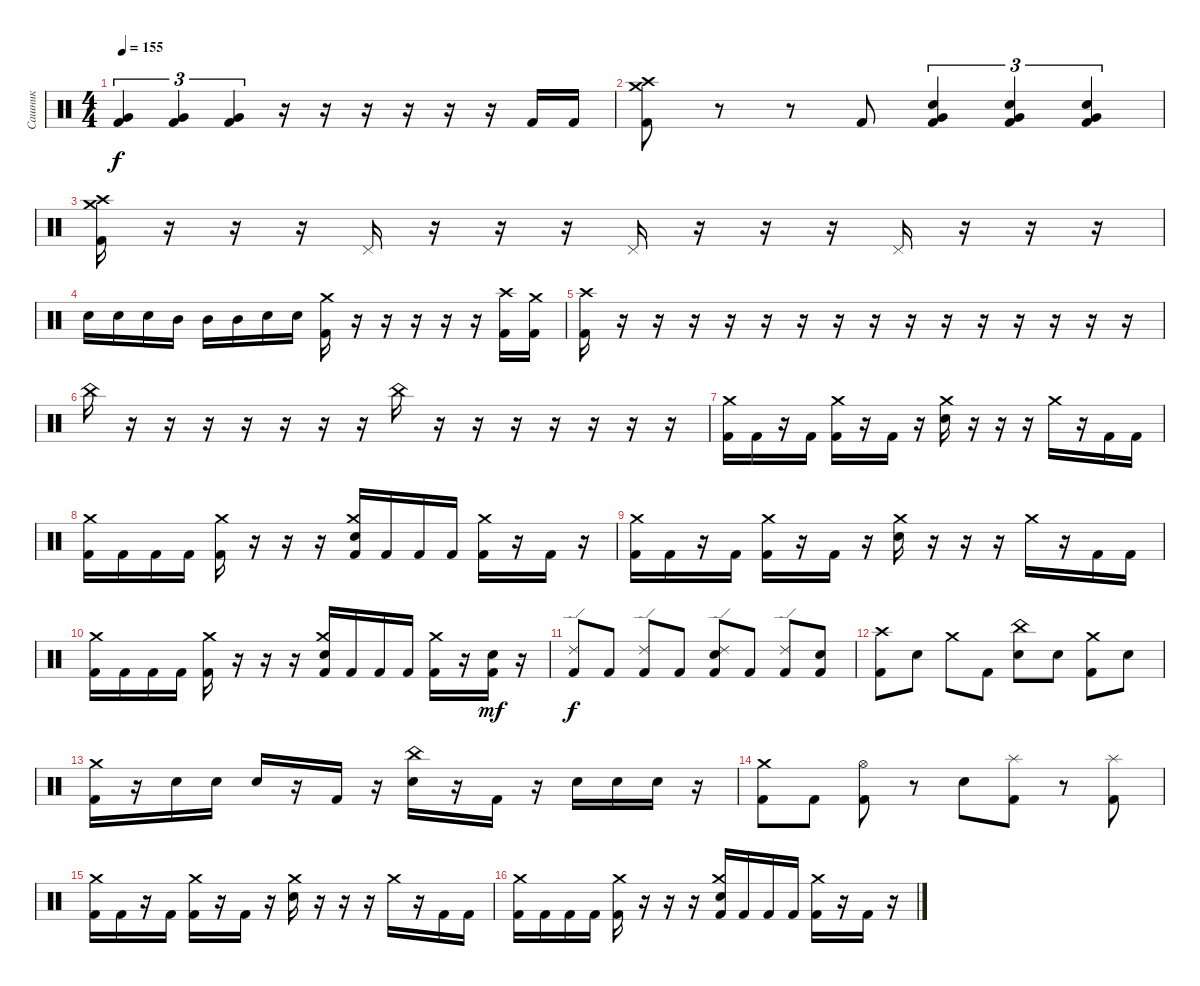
\track ("Сашник" "Сашник") {instrument percussion}
\staff {score}
\articulation defaults
\ts (4 4)
\tempo 155
\clef neutral
\ks c
("Very Low Tom (hit)" "Kick (hit) 2").4{tu (3 2) dy f} ("Very Low Tom (hit)" "Kick (hit) 2").4{tu (3 2)} ("Very Low Tom (hit)" "Kick (hit) 2").4{tu (3 2)} r.16 r.16 r.16 r.16 r.16 r.16 "Kick (hit) 2".16 "Kick (hit) 2".16 |
("Crash high (hit)" "Crash medium (hit)" "Kick (hit) 2").8 r.8 r.8 "Kick (hit) 2".8 ("Very Low Tom (hit)" "Electric Snare (hit)" "Kick (hit) 2").4{tu (3 2)} ("Very Low Tom (hit)" "Electric Snare (hit)" "Kick (hit) 2").4{tu (3 2)} ("Very Low Tom (hit)" "Electric Snare (hit)" "Kick (hit) 2").4{tu (3 2)} |
("Crash medium (hit)" "Crash high (hit)" "Kick (hit) 2").16 r.16 r.16 r.16 "Pedal Hi-Hat (hit)".16 r.16 r.16 r.16 "Pedal Hi-Hat (hit)".16 r.16 r.16 r.16 "Pedal Hi-Hat (hit)".16 r.16 r.16 r.16 |
"Electric Snare (hit)".16 "Electric Snare (hit)".16 "Electric Snare (hit)".16 "Mid Tom (hit)".16 "Mid Tom (hit)".16 "Mid Tom (hit)".16 "Electric Snare (hit)".16 "Electric Snare (hit)".16 ("Crash medium (hit)" "Kick (hit) 2").16 r.16 r.16 r.16 r.16 r.16 ("Crash high (hit)" "Kick (hit) 2").16 ("Crash medium (hit)" "Kick (hit) 2").16 |
("Crash high (hit)" "Kick (hit) 2").16 r.16 r.16 r.16 r.16 r.16 r.16 r.16 r.16 r.16 r.16 r.16 r.16 r.16 r.16 r.16 |
"China (hit)".16 r.16 r.16 r.16 r.16 r.16 r.16 r.16 "China (hit)".16 r.16 r.16 r.16 r.16 r.16 r.16 r.16 |
("Crash medium (hit)" "Kick (hit) 2").16 "Kick (hit) 2".16 r.16 "Kick (hit) 2".16 ("Crash medium (hit)" "Kick (hit) 2").16 r.16 "Kick (hit) 2".16 r.16 ("Crash medium (hit)" "Electric Snare (hit)").16 r.16 r.16 r.16 "Crash medium (hit)".16 r.16 "Kick (hit) 2".16 "Kick (hit) 2".16 |
("Crash medium (hit)" "Kick (hit) 2").16 "Kick (hit) 2".16 "Kick (hit) 2".16 "Kick (hit) 2".16 ("Crash medium (hit)" "Kick (hit) 2").16 r.16 r.16 r.16 ("Crash medium (hit)" "Electric Snare (hit)" "Kick (hit) 2").16 "Kick (hit) 2".16 "Kick (hit) 2".16 "Kick (hit) 2".16 ("Crash medium (hit)" "Kick (hit) 2").16 r.16 "Kick (hit) 2".16 r.16 |
("Crash medium (hit)" "Kick (hit) 2").16 "Kick (hit) 2".16 r.16 "Kick (hit) 2".16 ("Crash medium (hit)" "Kick (hit) 2").16 r.16 "Kick (hit) 2".16 r.16 ("Crash medium (hit)" "Electric Snare (hit)").16 r.16 r.16 r.16 "Crash medium (hit)".16 r.16 "Kick (hit) 2".16 "Kick (hit) 2".16 |
("Crash medium (hit)" "Kick (hit) 2").16 "Kick (hit) 2".16 "Kick (hit) 2".16 "Kick (hit) 2".16 ("Crash medium (hit)" "Kick (hit) 2").16 r.16 r.16 r.16 ("Crash medium (hit)" "Electric Snare (hit)" "Kick (hit) 2").16 "Kick (hit) 2".16 "Kick (hit) 2".16 "Kick (hit) 2".16 ("Crash medium (hit)" "Kick (hit) 2").16 r.16 ("Electric Snare (hit)" "Kick (hit) 2").16{dy mf} r.16 |
("Ride (edge) 2" "Kick (hit) 2").8{dy f} "Kick (hit) 2".8 ("Ride (edge) 2" "Kick (hit) 2").8 "Kick (hit) 2".8 ("Ride (edge) 2" "Electric Snare (hit)" "Kick (hit) 2").8 "Kick (hit) 2".8 ("Ride (edge) 2" "Kick (hit) 2").8 ("Electric Snare (hit)" "Kick (hit) 2").8 |
("Crash high (hit)" "Kick (hit) 2").8 "Electric Snare (hit)".8 "Crash medium (hit)".8 "Kick (hit) 2".8 ("China (hit)" "Electric Snare (hit)").8 "Electric Snare (hit)".8 ("Crash medium (hit)" "Kick (hit) 2").8 "Electric Snare (hit)".8 |
("Crash medium (hit)" "Kick (hit) 2").16 r.16 "Electric Snare (hit)".16 "Electric Snare (hit)".16 "Electric Snare (hit)".16 r.16 "Kick (hit) 2".16 r.16 ("China (hit)" "Electric Snare (hit)").16 r.16 "Kick (hit) 2".16 r.16 "Electric Snare (hit)".16 "Electric Snare (hit)".16 "Electric Snare (hit)".16 r.16 |
("Crash medium (hit)" "Kick (hit) 2").8 "Kick (hit) 2".8 ("Hi-Hat (open)" "Kick (hit) 2").8 r.8 "Electric Snare (hit)".8 ("Splash (hit)" "Kick (hit) 2").8 r.8 ("Splash (hit)" "Kick (hit) 2").8 |
("Crash medium (hit)" "Kick (hit) 2").16 "Kick (hit) 2".16 r.16 "Kick (hit) 2".16 ("Crash medium (hit)" "Kick (hit) 2").16 r.16 "Kick (hit) 2".16 r.16 ("Crash medium (hit)" "Electric Snare (hit)").16 r.16 r.16 r.16 "Crash medium (hit)".16 r.16 "Kick (hit) 2".16 "Kick (hit) 2".16 |
("Crash medium (hit)" "Kick (hit) 2").16 "Kick (hit) 2".16 "Kick (hit) 2".16 "Kick (hit) 2".16 ("Crash medium (hit)" "Kick (hit) 2").16 r.16 r.16 r.16 ("Crash medium (hit)" "Electric Snare (hit)" "Kick (hit) 2").16 "Kick (hit) 2".16 "Kick (hit) 2".16 "Kick (hit) 2".16 ("Crash medium (hit)" "Kick (hit) 2").16 r.16 "Kick (hit) 2".16 r.16
